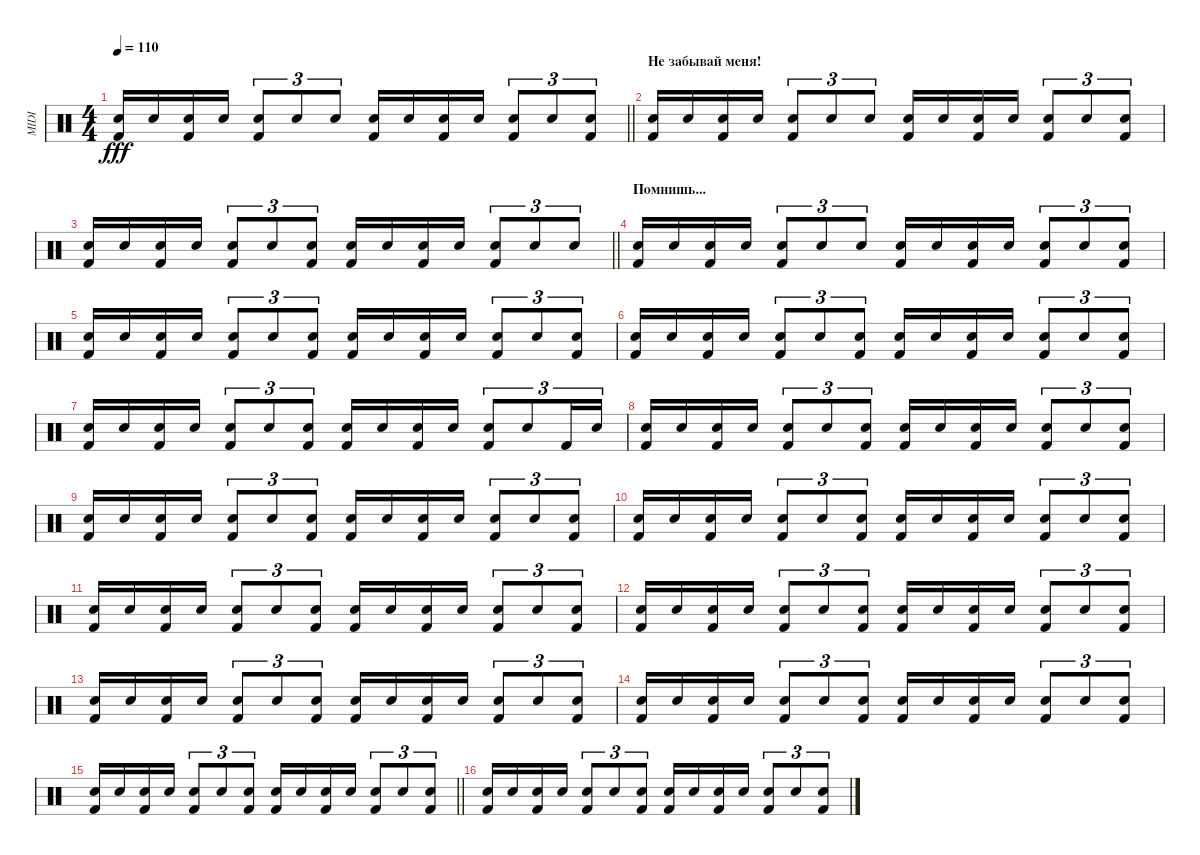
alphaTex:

\track ("MIDI" "MIDI") {instrument percussion}
\staff
\articulation defaults
\ts (4 4)
\tempo 110
\clef neutral
\barLineRight lightlight
\ks c
("Kick (hit) 2" "Snare (hit)").16{dy fff} "Snare (hit)".16 ("Kick (hit) 2" "Snare (hit)").16 "Snare (hit)".16 ("Kick (hit) 2" "Snare (hit)").8{tu (3 2)} "Snare (hit)".8{tu (3 2)} "Snare (hit)".8{tu (3 2)} ("Kick (hit) 2" "Snare (hit)").16 "Snare (hit)".16 ("Kick (hit) 2" "Snare (hit)").16 "Snare (hit)".16 ("Kick (hit) 2" "Snare (hit)").8{tu (3 2)} "Snare (hit)".8{tu (3 2)} ("Kick (hit) 2" "Snare (hit)").8{tu (3 2)} |
\section ("" "Не забывай меня!")
("Kick (hit) 2" "Snare (hit)").16 "Snare (hit)".16 ("Kick (hit) 2" "Snare (hit)").16 "Snare (hit)".16 ("Kick (hit) 2" "Snare (hit)").8{tu (3 2)} "Snare (hit)".8{tu (3 2)} "Snare (hit)".8{tu (3 2)} ("Kick (hit) 2" "Snare (hit)").16 "Snare (hit)".16 ("Kick (hit) 2" "Snare (hit)").16 "Snare (hit)".16 ("Kick (hit) 2" "Snare (hit)").8{tu (3 2)} "Snare (hit)".8{tu (3 2)} ("Kick (hit) 2" "Snare (hit)").8{tu (3 2)} |
\barLineRight lightlight
("Kick (hit) 2" "Snare (hit)").16 "Snare (hit)".16 ("Kick (hit) 2" "Snare (hit)").16 "Snare (hit)".16 ("Kick (hit) 2" "Snare (hit)").8{tu (3 2)} "Snare (hit)".8{tu (3 2)} ("Kick (hit) 2" "Snare (hit)").8{tu (3 2)} ("Kick (hit) 2" "Snare (hit)").16 "Snare (hit)".16 ("Kick (hit) 2" "Snare (hit)").16 "Snare (hit)".16 ("Kick (hit) 2" "Snare (hit)").8{tu (3 2)} "Snare (hit)".8{tu (3 2)} "Snare (hit)".8{tu (3 2)} |
\section ("" "Помнишь...")
("Kick (hit) 2" "Snare (hit)").16 "Snare (hit)".16 ("Kick (hit) 2" "Snare (hit)").16 "Snare (hit)".16 ("Kick (hit) 2" "Snare (hit)").8{tu (3 2)} "Snare (hit)".8{tu (3 2)} "Snare (hit)".8{tu (3 2)} ("Kick (hit) 2" "Snare (hit)").16 "Snare (hit)".16 ("Kick (hit) 2" "Snare (hit)").16 "Snare (hit)".16 ("Kick (hit) 2" "Snare (hit)").8{tu (3 2)} "Snare (hit)".8{tu (3 2)} ("Kick (hit) 2" "Snare (hit)").8{tu (3 2)} |
("Kick (hit) 2" "Snare (hit)").16 "Snare (hit)".16 ("Kick (hit) 2" "Snare (hit)").16 "Snare (hit)".16 ("Kick (hit) 2" "Snare (hit)").8{tu (3 2)} "Snare (hit)".8{tu (3 2)} ("Kick (hit) 2" "Snare (hit)").8{tu (3 2)} ("Kick (hit) 2" "Snare (hit)").16 "Snare (hit)".16 ("Kick (hit) 2" "Snare (hit)").16 "Snare (hit)".16 ("Kick (hit) 2" "Snare (hit)").8{tu (3 2)} "Snare (hit)".8{tu (3 2)} ("Kick (hit) 2" "Snare (hit)").8{tu (3 2)} |
("Kick (hit) 2" "Snare (hit)").16 "Snare (hit)".16 ("Kick (hit) 2" "Snare (hit)").16 "Snare (hit)".16 ("Kick (hit) 2" "Snare (hit)").8{tu (3 2)} "Snare (hit)".8{tu (3 2)} ("Kick (hit) 2" "Snare (hit)").8{tu (3 2)} ("Kick (hit) 2" "Snare (hit)").16 "Snare (hit)".16 ("Kick (hit) 2" "Snare (hit)").16 "Snare (hit)".16 ("Kick (hit) 2" "Snare (hit)").8{tu (3 2)} "Snare (hit)".8{tu (3 2)} ("Kick (hit) 2" "Snare (hit)").8{tu (3 2)} |
("Kick (hit) 2" "Snare (hit)").16 "Snare (hit)".16 ("Kick (hit) 2" "Snare (hit)").16 "Snare (hit)".16 ("Kick (hit) 2" "Snare (hit)").8{tu (3 2)} "Snare (hit)".8{tu (3 2)} ("Kick (hit) 2" "Snare (hit)").8{tu (3 2)} ("Kick (hit) 2" "Snare (hit)").16 "Snare (hit)".16 ("Kick (hit) 2" "Snare (hit)").16 "Snare (hit)".16 ("Kick (hit) 2" "Snare (hit)").8{tu (3 2)} "Snare (hit)".8{tu (3 2)} "Kick (hit) 2".16{tu (3 2)} "Snare (hit)".16{tu (3 2)} |
("Kick (hit) 2" "Snare (hit)").16 "Snare (hit)".16 ("Kick (hit) 2" "Snare (hit)").16 "Snare (hit)".16 ("Kick (hit) 2" "Snare (hit)").8{tu (3 2)} "Snare (hit)".8{tu (3 2)} ("Kick (hit) 2" "Snare (hit)").8{tu (3 2)} ("Kick (hit) 2" "Snare (hit)").16 "Snare (hit)".16 ("Kick (hit) 2" "Snare (hit)").16 "Snare (hit)".16 ("Kick (hit) 2" "Snare (hit)").8{tu (3 2)} "Snare (hit)".8{tu (3 2)} ("Kick (hit) 2" "Snare (hit)").8{tu (3 2)} |
("Kick (hit) 2" "Snare (hit)").16 "Snare (hit)".16 ("Kick (hit) 2" "Snare (hit)").16 "Snare (hit)".16 ("Kick (hit) 2" "Snare (hit)").8{tu (3 2)} "Snare (hit)".8{tu (3 2)} ("Kick (hit) 2" "Snare (hit)").8{tu (3 2)} ("Kick (hit) 2" "Snare (hit)").16 "Snare (hit)".16 ("Kick (hit) 2" "Snare (hit)").16 "Snare (hit)".16 ("Kick (hit) 2" "Snare (hit)").8{tu (3 2)} "Snare (hit)".8{tu (3 2)} ("Kick (hit) 2" "Snare (hit)").8{tu (3 2)} |
("Kick (hit) 2" "Snare (hit)").16 "Snare (hit)".16 ("Kick (hit) 2" "Snare (hit)").16 "Snare (hit)".16 ("Kick (hit) 2" "Snare (hit)").8{tu (3 2)} "Snare (hit)".8{tu (3 2)} ("Kick (hit) 2" "Snare (hit)").8{tu (3 2)} ("Kick (hit) 2" "Snare (hit)").16 "Snare (hit)".16 ("Kick (hit) 2" "Snare (hit)").16 "Snare (hit)".16 ("Kick (hit) 2" "Snare (hit)").8{tu (3 2)} "Snare (hit)".8{tu (3 2)} ("Kick (hit) 2" "Snare (hit)").8{tu (3 2)} |
("Kick (hit) 2" "Snare (hit)").16 "Snare (hit)".16 ("Kick (hit) 2" "Snare (hit)").16 "Snare (hit)".16 ("Kick (hit) 2" "Snare (hit)").8{tu (3 2)} "Snare (hit)".8{tu (3 2)} ("Kick (hit) 2" "Snare (hit)").8{tu (3 2)} ("Kick (hit) 2" "Snare (hit)").16 "Snare (hit)".16 ("Kick (hit) 2" "Snare (hit)").16 "Snare (hit)".16 ("Kick (hit) 2" "Snare (hit)").8{tu (3 2)} "Snare (hit)".8{tu (3 2)} ("Kick (hit) 2" "Snare (hit)").8{tu (3 2)} |
("Kick (hit) 2" "Snare (hit)").16 "Snare (hit)".16 ("Kick (hit) 2" "Snare (hit)").16 "Snare (hit)".16 ("Kick (hit) 2" "Snare (hit)").8{tu (3 2)} "Snare (hit)".8{tu (3 2)} ("Kick (hit) 2" "Snare (hit)").8{tu (3 2)} ("Kick (hit) 2" "Snare (hit)").16 "Snare (hit)".16 ("Kick (hit) 2" "Snare (hit)").16 "Snare (hit)".16 ("Kick (hit) 2" "Snare (hit)").8{tu (3 2)} "Snare (hit)".8{tu (3 2)} ("Kick (hit) 2" "Snare (hit)").8{tu (3 2)} |
("Kick (hit) 2" "Snare (hit)").16 "Snare (hit)".16 ("Kick (hit) 2" "Snare (hit)").16 "Snare (hit)".16 ("Kick (hit) 2" "Snare (hit)").8{tu (3 2)} "Snare (hit)".8{tu (3 2)} ("Kick (hit) 2" "Snare (hit)").8{tu (3 2)} ("Kick (hit) 2" "Snare (hit)").16 "Snare (hit)".16 ("Kick (hit) 2" "Snare (hit)").16 "Snare (hit)".16 ("Kick (hit) 2" "Snare (hit)").8{tu (3 2)} "Snare (hit)".8{tu (3 2)} ("Kick (hit) 2" "Snare (hit)").8{tu (3 2)} |
("Kick (hit) 2" "Snare (hit)").16 "Snare (hit)".16 ("Kick (hit) 2" "Snare (hit)").16 "Snare (hit)".16 ("Kick (hit) 2" "Snare (hit)").8{tu (3 2)} "Snare (hit)".8{tu (3 2)} ("Kick (hit) 2" "Snare (hit)").8{tu (3 2)} ("Kick (hit) 2" "Snare (hit)").16 "Snare (hit)".16 ("Kick (hit) 2" "Snare (hit)").16 "Snare (hit)".16 ("Kick (hit) 2" "Snare (hit)").8{tu (3 2)} "Snare (hit)".8{tu (3 2)} ("Kick (hit) 2" "Snare (hit)").8{tu (3 2)} |
\barLineRight lightlight
("Kick (hit) 2" "Snare (hit)").16 "Snare (hit)".16 ("Kick (hit) 2" "Snare (hit)").16 "Snare (hit)".16 ("Kick (hit) 2" "Snare (hit)").8{tu (3 2)} "Snare (hit)".8{tu (3 2)} ("Kick (hit) 2" "Snare (hit)").8{tu (3 2)} ("Kick (hit) 2" "Snare (hit)").16 "Snare (hit)".16 ("Kick (hit) 2" "Snare (hit)").16 "Snare (hit)".16 ("Kick (hit) 2" "Snare (hit)").8{tu (3 2)} "Snare (hit)".8{tu (3 2)} ("Kick (hit) 2" "Snare (hit)").8{tu (3 2)} |
("Kick (hit) 2" "Snare (hit)").16 "Snare (hit)".16 ("Kick (hit) 2" "Snare (hit)").16 "Snare (hit)".16 ("Kick (hit) 2" "Snare (hit)").8{tu (3 2)} "Snare (hit)".8{tu (3 2)} ("Kick (hit) 2" "Snare (hit)").8{tu (3 2)} ("Kick (hit) 2" "Snare (hit)").16 "Snare (hit)".16 ("Kick (hit) 2" "Snare (hit)").16 "Snare (hit)".16 ("Kick (hit) 2" "Snare (hit)").8{tu (3 2)} "Snare (hit)".8{tu (3 2)} ("Kick (hit) 2" "Snare (hit)").8{tu (3 2)}
